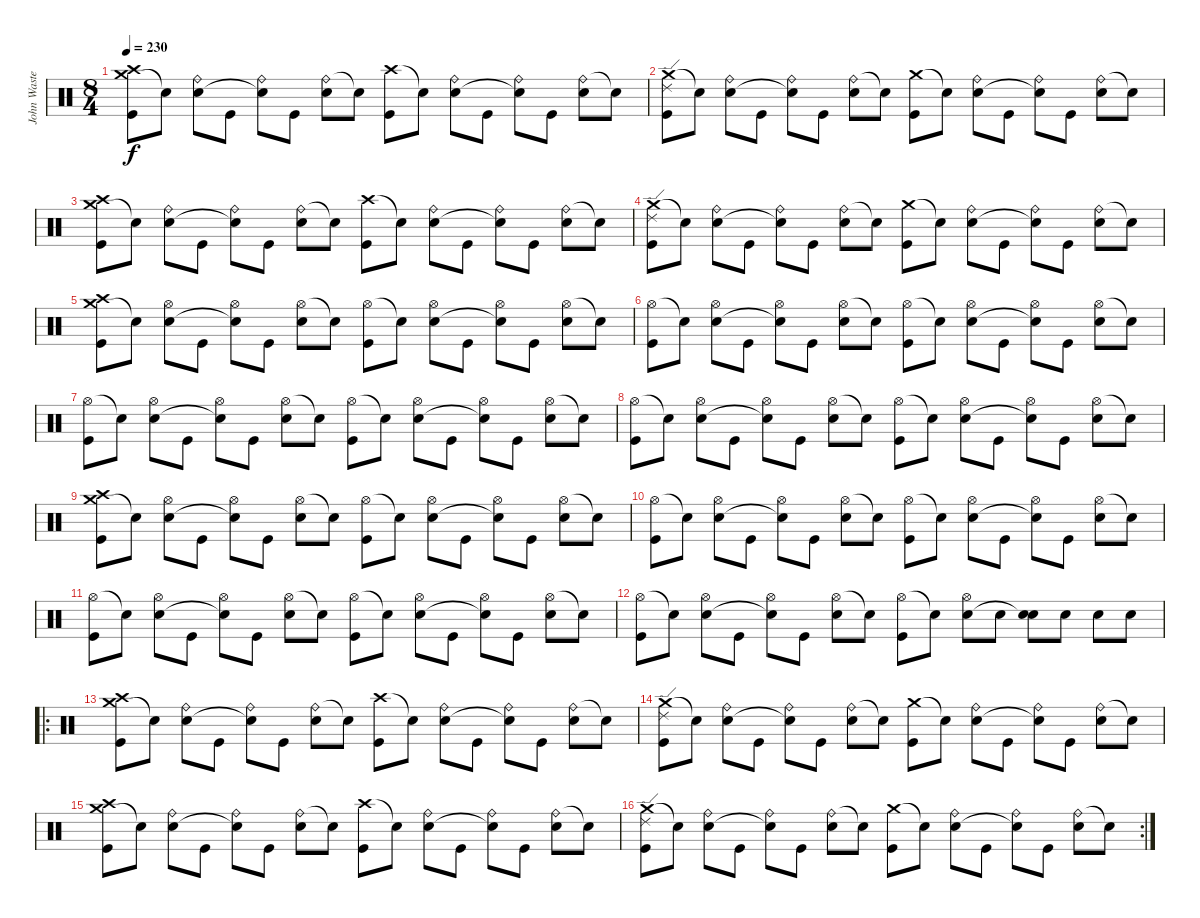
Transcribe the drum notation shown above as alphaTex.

\track ("John Wasted" "John Waste") {instrument percussion}
\staff {score}
\articulation defaults
\ts (8 4)
\tempo 230
\clef neutral
\ks c
("Crash medium (hit)" "Crash high (hit)" "Kick (hit)").8{dy f} "Snare (hit)"{t}.8 ("Ride (bell)" "Snare (hit) 2").8 "Kick (hit)".8 ("Ride (bell)" "Snare (hit)"{t}).8 "Kick (hit)".8 ("Ride (bell)" "Snare (hit) 2").8 "Snare (hit)"{t}.8 ("Crash high (hit)" "Kick (hit)").8 "Snare (hit)"{t}.8 ("Ride (bell)" "Snare (hit) 2").8 "Kick (hit)".8 ("Ride (bell)" "Snare (hit)"{t}).8 "Kick (hit)".8 ("Ride (bell)" "Snare (hit) 2").8 "Snare (hit)"{t}.8 |
("Crash medium (hit)" "Ride (edge) 2" "Kick (hit)").8 "Snare (hit)"{t}.8 ("Ride (bell)" "Snare (hit) 2").8 "Kick (hit)".8 ("Ride (bell)" "Snare (hit)"{t}).8 "Kick (hit)".8 ("Ride (bell)" "Snare (hit) 2").8 "Snare (hit)"{t}.8 ("Crash medium (hit)" "Kick (hit)").8 "Snare (hit)"{t}.8 ("Ride (bell)" "Snare (hit) 2").8 "Kick (hit)".8 ("Ride (bell)" "Snare (hit)"{t}).8 "Kick (hit)".8 ("Ride (bell)" "Snare (hit) 2").8 "Snare (hit)"{t}.8 |
("Crash medium (hit)" "Crash high (hit)" "Kick (hit)").8 "Snare (hit)"{t}.8 ("Ride (bell)" "Snare (hit) 2").8 "Kick (hit)".8 ("Ride (bell)" "Snare (hit)"{t}).8 "Kick (hit)".8 ("Ride (bell)" "Snare (hit) 2").8 "Snare (hit)"{t}.8 ("Crash high (hit)" "Kick (hit)").8 "Snare (hit)"{t}.8 ("Ride (bell)" "Snare (hit) 2").8 "Kick (hit)".8 ("Ride (bell)" "Snare (hit)"{t}).8 "Kick (hit)".8 ("Ride (bell)" "Snare (hit) 2").8 "Snare (hit)"{t}.8 |
("Crash medium (hit)" "Ride (edge) 2" "Kick (hit)").8 "Snare (hit)"{t}.8 ("Ride (bell)" "Snare (hit) 2").8 "Kick (hit)".8 ("Ride (bell)" "Snare (hit)"{t}).8 "Kick (hit)".8 ("Ride (bell)" "Snare (hit) 2").8 "Snare (hit)"{t}.8 ("Crash medium (hit)" "Kick (hit)").8 "Snare (hit)"{t}.8 ("Ride (bell)" "Snare (hit) 2").8 "Kick (hit)".8 ("Ride (bell)" "Snare (hit)"{t}).8 "Kick (hit)".8 ("Ride (bell)" "Snare (hit) 2").8 "Snare (hit)"{t}.8 |
("Crash medium (hit)" "Crash high (hit)" "Kick (hit)").8 "Snare (hit)"{t}.8 ("Hi-Hat (open)" "Snare (hit) 2").8 "Kick (hit)".8 ("Hi-Hat (open)" "Snare (hit)"{t}).8 "Kick (hit)".8 ("Hi-Hat (open)" "Snare (hit) 2").8 "Snare (hit)"{t}.8 ("Hi-Hat (open)" "Kick (hit)").8 "Snare (hit)"{t}.8 ("Hi-Hat (open)" "Snare (hit) 2").8 "Kick (hit)".8 ("Hi-Hat (open)" "Snare (hit)"{t}).8 "Kick (hit)".8 ("Hi-Hat (open)" "Snare (hit) 2").8 "Snare (hit)"{t}.8 |
("Hi-Hat (open)" "Kick (hit)").8 "Snare (hit)"{t}.8 ("Hi-Hat (open)" "Snare (hit) 2").8 "Kick (hit)".8 ("Hi-Hat (open)" "Snare (hit)"{t}).8 "Kick (hit)".8 ("Hi-Hat (open)" "Snare (hit) 2").8 "Snare (hit)"{t}.8 ("Hi-Hat (open)" "Kick (hit)").8 "Snare (hit)"{t}.8 ("Hi-Hat (open)" "Snare (hit) 2").8 "Kick (hit)".8 ("Hi-Hat (open)" "Snare (hit)"{t}).8 "Kick (hit)".8 ("Hi-Hat (open)" "Snare (hit) 2").8 "Snare (hit)"{t}.8 |
("Hi-Hat (open)" "Kick (hit)").8 "Snare (hit)"{t}.8 ("Hi-Hat (open)" "Snare (hit) 2").8 "Kick (hit)".8 ("Hi-Hat (open)" "Snare (hit)"{t}).8 "Kick (hit)".8 ("Hi-Hat (open)" "Snare (hit) 2").8 "Snare (hit)"{t}.8 ("Hi-Hat (open)" "Kick (hit)").8 "Snare (hit)"{t}.8 ("Hi-Hat (open)" "Snare (hit) 2").8 "Kick (hit)".8 ("Hi-Hat (open)" "Snare (hit)"{t}).8 "Kick (hit)".8 ("Hi-Hat (open)" "Snare (hit) 2").8 "Snare (hit)"{t}.8 |
("Hi-Hat (open)" "Kick (hit)").8 "Snare (hit)"{t}.8 ("Hi-Hat (open)" "Snare (hit) 2").8 "Kick (hit)".8 ("Hi-Hat (open)" "Snare (hit)"{t}).8 "Kick (hit)".8 ("Hi-Hat (open)" "Snare (hit) 2").8 "Snare (hit)"{t}.8 ("Hi-Hat (open)" "Kick (hit)").8 "Snare (hit)"{t}.8 ("Hi-Hat (open)" "Snare (hit) 2").8 "Kick (hit)".8 ("Hi-Hat (open)" "Snare (hit)"{t}).8 "Kick (hit)".8 ("Hi-Hat (open)" "Snare (hit) 2").8 "Snare (hit)"{t}.8 |
("Crash medium (hit)" "Crash high (hit)" "Kick (hit)").8 "Snare (hit)"{t}.8 ("Hi-Hat (open)" "Snare (hit) 2").8 "Kick (hit)".8 ("Hi-Hat (open)" "Snare (hit)"{t}).8 "Kick (hit)".8 ("Hi-Hat (open)" "Snare (hit) 2").8 "Snare (hit)"{t}.8 ("Hi-Hat (open)" "Kick (hit)").8 "Snare (hit)"{t}.8 ("Hi-Hat (open)" "Snare (hit) 2").8 "Kick (hit)".8 ("Hi-Hat (open)" "Snare (hit)"{t}).8 "Kick (hit)".8 ("Hi-Hat (open)" "Snare (hit) 2").8 "Snare (hit)"{t}.8 |
("Hi-Hat (open)" "Kick (hit)").8 "Snare (hit)"{t}.8 ("Hi-Hat (open)" "Snare (hit) 2").8 "Kick (hit)".8 ("Hi-Hat (open)" "Snare (hit)"{t}).8 "Kick (hit)".8 ("Hi-Hat (open)" "Snare (hit) 2").8 "Snare (hit)"{t}.8 ("Hi-Hat (open)" "Kick (hit)").8 "Snare (hit)"{t}.8 ("Hi-Hat (open)" "Snare (hit) 2").8 "Kick (hit)".8 ("Hi-Hat (open)" "Snare (hit)"{t}).8 "Kick (hit)".8 ("Hi-Hat (open)" "Snare (hit) 2").8 "Snare (hit)"{t}.8 |
("Hi-Hat (open)" "Kick (hit)").8 "Snare (hit)"{t}.8 ("Hi-Hat (open)" "Snare (hit) 2").8 "Kick (hit)".8 ("Hi-Hat (open)" "Snare (hit)"{t}).8 "Kick (hit)".8 ("Hi-Hat (open)" "Snare (hit) 2").8 "Snare (hit)"{t}.8 ("Hi-Hat (open)" "Kick (hit)").8 "Snare (hit)"{t}.8 ("Hi-Hat (open)" "Snare (hit) 2").8 "Kick (hit)".8 ("Hi-Hat (open)" "Snare (hit)"{t}).8 "Kick (hit)".8 ("Hi-Hat (open)" "Snare (hit) 2").8 "Snare (hit)"{t}.8 |
("Hi-Hat (open)" "Kick (hit)").8 "Snare (hit)"{t}.8 ("Hi-Hat (open)" "Snare (hit) 2").8 "Kick (hit)".8 ("Hi-Hat (open)" "Snare (hit)"{t}).8 "Kick (hit)".8 ("Hi-Hat (open)" "Snare (hit) 2").8 "Snare (hit)"{t}.8 ("Hi-Hat (open)" "Kick (hit)").8 "Snare (hit)"{t}.8 ("Hi-Hat (open)" "Snare (hit) 2").8 "Snare (hit) 2".8 ("Snare (hit) 2" "Snare (hit)"{t}).8 "Snare (hit) 2".8 "Snare (hit) 2".8 "Snare (hit) 2".8 |
\ro
("Crash medium (hit)" "Crash high (hit)" "Kick (hit)").8 "Snare (hit)"{t}.8 ("Ride (bell)" "Snare (hit) 2").8 "Kick (hit)".8 ("Ride (bell)" "Snare (hit)"{t}).8 "Kick (hit)".8 ("Ride (bell)" "Snare (hit) 2").8 "Snare (hit)"{t}.8 ("Crash high (hit)" "Kick (hit)").8 "Snare (hit)"{t}.8 ("Ride (bell)" "Snare (hit) 2").8 "Kick (hit)".8 ("Ride (bell)" "Snare (hit)"{t}).8 "Kick (hit)".8 ("Ride (bell)" "Snare (hit) 2").8 "Snare (hit)"{t}.8 |
("Crash medium (hit)" "Ride (edge) 2" "Kick (hit)").8 "Snare (hit)"{t}.8 ("Ride (bell)" "Snare (hit) 2").8 "Kick (hit)".8 ("Ride (bell)" "Snare (hit)"{t}).8 "Kick (hit)".8 ("Ride (bell)" "Snare (hit) 2").8 "Snare (hit)"{t}.8 ("Crash medium (hit)" "Kick (hit)").8 "Snare (hit)"{t}.8 ("Ride (bell)" "Snare (hit) 2").8 "Kick (hit)".8 ("Ride (bell)" "Snare (hit)"{t}).8 "Kick (hit)".8 ("Ride (bell)" "Snare (hit) 2").8 "Snare (hit)"{t}.8 |
("Crash medium (hit)" "Crash high (hit)" "Kick (hit)").8 "Snare (hit)"{t}.8 ("Ride (bell)" "Snare (hit) 2").8 "Kick (hit)".8 ("Ride (bell)" "Snare (hit)"{t}).8 "Kick (hit)".8 ("Ride (bell)" "Snare (hit) 2").8 "Snare (hit)"{t}.8 ("Crash high (hit)" "Kick (hit)").8 "Snare (hit)"{t}.8 ("Ride (bell)" "Snare (hit) 2").8 "Kick (hit)".8 ("Ride (bell)" "Snare (hit)"{t}).8 "Kick (hit)".8 ("Ride (bell)" "Snare (hit) 2").8 "Snare (hit)"{t}.8 |
\rc 2
("Crash medium (hit)" "Ride (edge) 2" "Kick (hit)").8 "Snare (hit)"{t}.8 ("Ride (bell)" "Snare (hit) 2").8 "Kick (hit)".8 ("Ride (bell)" "Snare (hit)"{t}).8 "Kick (hit)".8 ("Ride (bell)" "Snare (hit) 2").8 "Snare (hit)"{t}.8 ("Crash medium (hit)" "Kick (hit)").8 "Snare (hit)"{t}.8 ("Ride (bell)" "Snare (hit) 2").8 "Kick (hit)".8 ("Ride (bell)" "Snare (hit)"{t}).8 "Kick (hit)".8 ("Ride (bell)" "Snare (hit) 2").8 "Snare (hit)"{t}.8
